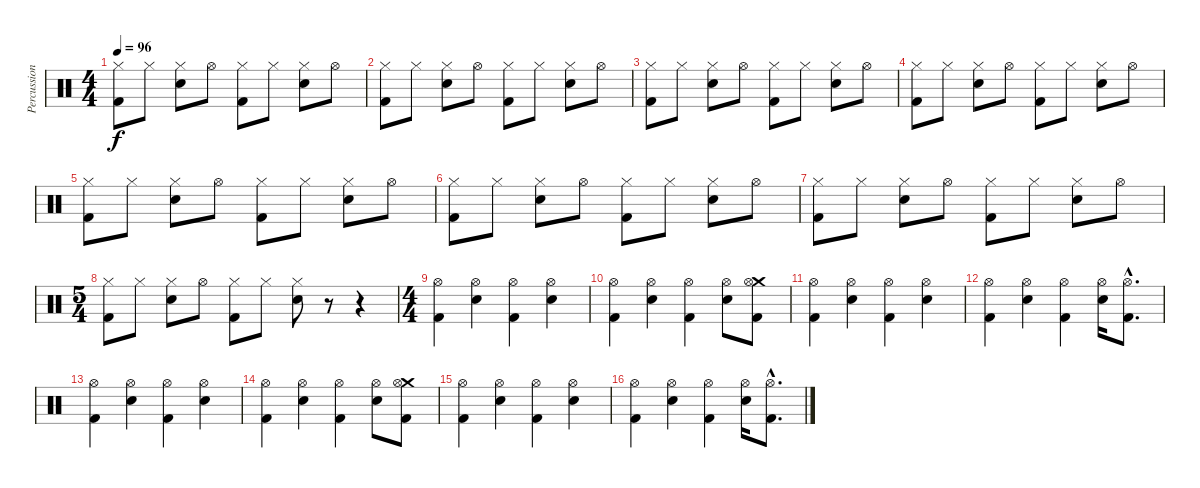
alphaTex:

\track ("Percussion" "Percussion") {instrument percussion}
\staff {score}
\articulation defaults
\ts (4 4)
\tempo 96
\clef neutral
\ks c
("Hi-Hat (closed)" "Kick (hit) 2").8{dy f} "Hi-Hat (closed)".8 ("Hi-Hat (closed)" "Snare (hit) 2").8 "Hi-Hat (open)".8 ("Hi-Hat (closed)" "Kick (hit) 2").8 "Hi-Hat (closed)".8 ("Hi-Hat (closed)" "Snare (hit) 2").8 "Hi-Hat (open)".8 |
("Hi-Hat (closed)" "Kick (hit) 2").8 "Hi-Hat (closed)".8 ("Hi-Hat (closed)" "Snare (hit) 2").8 "Hi-Hat (open)".8 ("Hi-Hat (closed)" "Kick (hit) 2").8 "Hi-Hat (closed)".8 ("Hi-Hat (closed)" "Snare (hit) 2").8 "Hi-Hat (open)".8 |
("Hi-Hat (closed)" "Kick (hit) 2").8 "Hi-Hat (closed)".8 ("Hi-Hat (closed)" "Snare (hit) 2").8 "Hi-Hat (open)".8 ("Hi-Hat (closed)" "Kick (hit) 2").8 "Hi-Hat (closed)".8 ("Hi-Hat (closed)" "Snare (hit) 2").8 "Hi-Hat (open)".8 |
("Hi-Hat (closed)" "Kick (hit) 2").8 "Hi-Hat (closed)".8 ("Hi-Hat (closed)" "Snare (hit) 2").8 "Hi-Hat (open)".8 ("Hi-Hat (closed)" "Kick (hit) 2").8 "Hi-Hat (closed)".8 ("Hi-Hat (closed)" "Snare (hit) 2").8 "Hi-Hat (open)".8 |
("Hi-Hat (closed)" "Kick (hit) 2").8 "Hi-Hat (closed)".8 ("Hi-Hat (closed)" "Snare (hit) 2").8 "Hi-Hat (open)".8 ("Hi-Hat (closed)" "Kick (hit) 2").8 "Hi-Hat (closed)".8 ("Hi-Hat (closed)" "Snare (hit) 2").8 "Hi-Hat (open)".8 |
("Hi-Hat (closed)" "Kick (hit) 2").8 "Hi-Hat (closed)".8 ("Hi-Hat (closed)" "Snare (hit) 2").8 "Hi-Hat (open)".8 ("Hi-Hat (closed)" "Kick (hit) 2").8 "Hi-Hat (closed)".8 ("Hi-Hat (closed)" "Snare (hit) 2").8 "Hi-Hat (open)".8 |
("Hi-Hat (closed)" "Kick (hit) 2").8 "Hi-Hat (closed)".8 ("Hi-Hat (closed)" "Snare (hit) 2").8 "Hi-Hat (open)".8 ("Hi-Hat (closed)" "Kick (hit) 2").8 "Hi-Hat (closed)".8 ("Hi-Hat (closed)" "Snare (hit) 2").8 "Hi-Hat (open)".8 |
\ts (5 4)
("Hi-Hat (closed)" "Kick (hit) 2").8 "Hi-Hat (closed)".8 ("Hi-Hat (closed)" "Snare (hit) 2").8 "Hi-Hat (open)".8 ("Hi-Hat (closed)" "Kick (hit) 2").8 "Hi-Hat (closed)".8 ("Hi-Hat (closed)" "Snare (hit) 2").8 r.8 r.4 |
\ts (4 4)
("Hi-Hat (open)" "Kick (hit) 2").4 ("Hi-Hat (open)" "Snare (hit) 2").4 ("Hi-Hat (open)" "Kick (hit) 2").4 ("Hi-Hat (open)" "Snare (hit) 2").4 |
("Hi-Hat (open)" "Kick (hit) 2").4 ("Hi-Hat (open)" "Snare (hit) 2").4 ("Hi-Hat (open)" "Kick (hit) 2").4 ("Hi-Hat (open)" "Snare (hit) 2").8 ("Crash medium (hit)" "Hi-Hat (open)" "Kick (hit) 2").8 |
("Hi-Hat (open)" "Kick (hit) 2").4 ("Hi-Hat (open)" "Snare (hit) 2").4 ("Hi-Hat (open)" "Kick (hit) 2").4 ("Hi-Hat (open)" "Snare (hit) 2").4 |
("Hi-Hat (open)" "Kick (hit) 2").4 ("Hi-Hat (open)" "Snare (hit) 2").4 ("Hi-Hat (open)" "Kick (hit) 2").4 ("Hi-Hat (open)" "Snare (hit) 2").16 ("Hi-Hat (open)"{hac} "Kick (hit) 2"{hac}).8{d} |
("Hi-Hat (open)" "Kick (hit) 2").4 ("Hi-Hat (open)" "Snare (hit) 2").4 ("Hi-Hat (open)" "Kick (hit) 2").4 ("Hi-Hat (open)" "Snare (hit) 2").4 |
("Hi-Hat (open)" "Kick (hit) 2").4 ("Hi-Hat (open)" "Snare (hit) 2").4 ("Hi-Hat (open)" "Kick (hit) 2").4 ("Hi-Hat (open)" "Snare (hit) 2").8 ("Crash medium (hit)" "Hi-Hat (open)" "Kick (hit) 2").8 |
("Hi-Hat (open)" "Kick (hit) 2").4 ("Hi-Hat (open)" "Snare (hit) 2").4 ("Hi-Hat (open)" "Kick (hit) 2").4 ("Hi-Hat (open)" "Snare (hit) 2").4 |
("Hi-Hat (open)" "Kick (hit) 2").4 ("Hi-Hat (open)" "Snare (hit) 2").4 ("Hi-Hat (open)" "Kick (hit) 2").4 ("Hi-Hat (open)" "Snare (hit) 2").16 ("Hi-Hat (open)"{hac} "Kick (hit) 2"{hac}).8{d}
